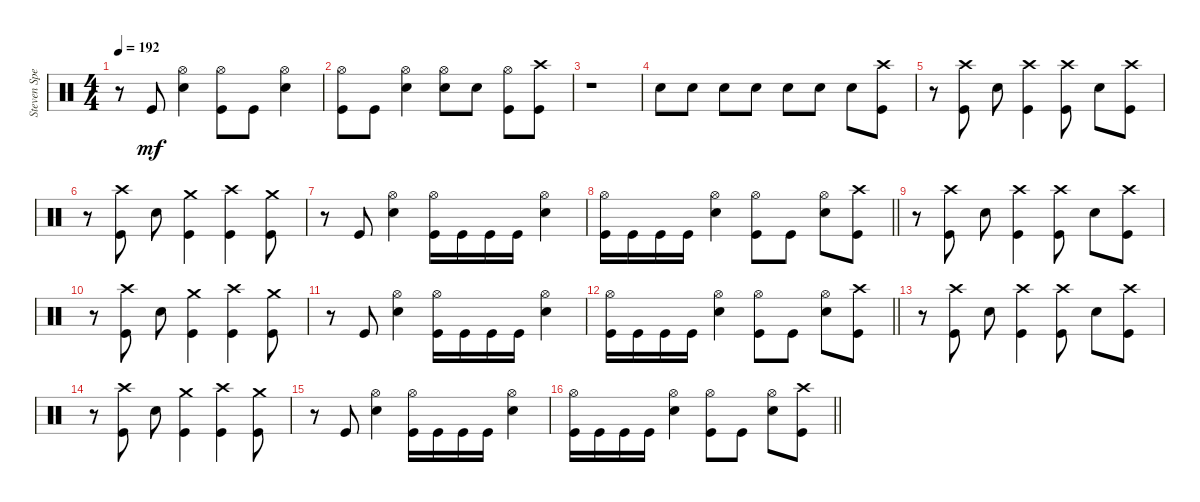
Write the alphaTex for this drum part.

\track ("Steven Spence" "Steven Spe") {instrument percussion}
\staff {score}
\articulation defaults
\ts (4 4)
\section ("" "")
\tempo 192
\clef neutral
\ks c
r.8{dy mf} "Kick (hit)".8 ("Hi-Hat (open)" "Electric Snare (hit)").4 ("Hi-Hat (open)" "Kick (hit)").8 "Kick (hit)".8 ("Hi-Hat (open)" "Electric Snare (hit)").4 |
("Hi-Hat (open)" "Kick (hit)").8 "Kick (hit)".8 ("Hi-Hat (open)" "Electric Snare (hit)").4 ("Hi-Hat (open)" "Electric Snare (hit)").8 "Electric Snare (hit)".8 ("Hi-Hat (open)" "Kick (hit)").8 ("Crash high (hit)" "Kick (hit)").8 |
r.1 |
"Electric Snare (hit)".8 "Electric Snare (hit)".8 "Electric Snare (hit)".8 "Electric Snare (hit)".8 "Electric Snare (hit)".8 "Electric Snare (hit)".8 "Electric Snare (hit)".8 ("Crash high (hit)" "Kick (hit)").8 |
r.8 ("Crash high (hit)" "Kick (hit)").8 "Electric Snare (hit)".8 ("Crash high (hit)" "Kick (hit)").4 ("Crash high (hit)" "Kick (hit)").8 "Electric Snare (hit)".8 ("Crash high (hit)" "Kick (hit)").8 |
r.8 ("Crash high (hit)" "Kick (hit)").8 "Electric Snare (hit)".8 ("Crash medium (hit)" "Kick (hit)").4 ("Crash high (hit)" "Kick (hit)").4 ("Crash medium (hit)" "Kick (hit)").8 |
r.8 "Kick (hit)".8 ("Hi-Hat (open)" "Electric Snare (hit)").4 ("Hi-Hat (open)" "Kick (hit)").16 "Kick (hit)".16 "Kick (hit)".16 "Kick (hit)".16 ("Hi-Hat (open)" "Electric Snare (hit)").4 |
\barLineRight lightlight
("Hi-Hat (open)" "Kick (hit)").16 "Kick (hit)".16 "Kick (hit)".16 "Kick (hit)".16 ("Hi-Hat (open)" "Electric Snare (hit)").4 ("Hi-Hat (open)" "Kick (hit)").8 "Kick (hit)".8 ("Hi-Hat (open)" "Electric Snare (hit)").8 ("Crash high (hit)" "Kick (hit)").8 |
\section ("" "")
r.8 ("Crash high (hit)" "Kick (hit)").8 "Electric Snare (hit)".8 ("Crash high (hit)" "Kick (hit)").4 ("Crash high (hit)" "Kick (hit)").8 "Electric Snare (hit)".8 ("Crash high (hit)" "Kick (hit)").8 |
r.8 ("Crash high (hit)" "Kick (hit)").8 "Electric Snare (hit)".8 ("Crash medium (hit)" "Kick (hit)").4 ("Crash high (hit)" "Kick (hit)").4 ("Crash medium (hit)" "Kick (hit)").8 |
r.8 "Kick (hit)".8 ("Hi-Hat (open)" "Electric Snare (hit)").4 ("Hi-Hat (open)" "Kick (hit)").16 "Kick (hit)".16 "Kick (hit)".16 "Kick (hit)".16 ("Hi-Hat (open)" "Electric Snare (hit)").4 |
\barLineRight lightlight
("Hi-Hat (open)" "Kick (hit)").16 "Kick (hit)".16 "Kick (hit)".16 "Kick (hit)".16 ("Hi-Hat (open)" "Electric Snare (hit)").4 ("Hi-Hat (open)" "Kick (hit)").8 "Kick (hit)".8 ("Hi-Hat (open)" "Electric Snare (hit)").8 ("Crash high (hit)" "Kick (hit)").8 |
r.8 ("Crash high (hit)" "Kick (hit)").8 "Electric Snare (hit)".8 ("Crash high (hit)" "Kick (hit)").4 ("Crash high (hit)" "Kick (hit)").8 "Electric Snare (hit)".8 ("Crash high (hit)" "Kick (hit)").8 |
r.8 ("Crash high (hit)" "Kick (hit)").8 "Electric Snare (hit)".8 ("Crash medium (hit)" "Kick (hit)").4 ("Crash high (hit)" "Kick (hit)").4 ("Crash medium (hit)" "Kick (hit)").8 |
r.8 "Kick (hit)".8 ("Hi-Hat (open)" "Electric Snare (hit)").4 ("Hi-Hat (open)" "Kick (hit)").16 "Kick (hit)".16 "Kick (hit)".16 "Kick (hit)".16 ("Hi-Hat (open)" "Electric Snare (hit)").4 |
\barLineRight lightlight
("Hi-Hat (open)" "Kick (hit)").16 "Kick (hit)".16 "Kick (hit)".16 "Kick (hit)".16 ("Hi-Hat (open)" "Electric Snare (hit)").4 ("Hi-Hat (open)" "Kick (hit)").8 "Kick (hit)".8 ("Hi-Hat (open)" "Electric Snare (hit)").8 ("Crash high (hit)" "Kick (hit)").8
